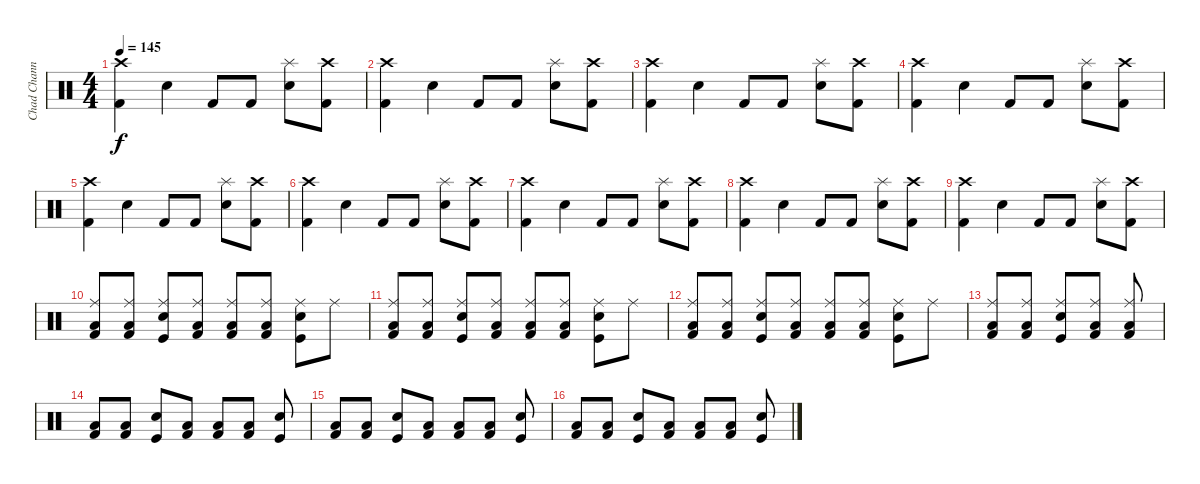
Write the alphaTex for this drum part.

\track ("Chad Channing" "Chad Chann") {instrument percussion}
\staff {score}
\articulation defaults
\ts (4 4)
\tempo 145
\clef neutral
\ks c
("Crash high (hit)" "Kick (hit) 2").4{dy f} "Snare (hit) 2".4 "Kick (hit) 2".8 "Kick (hit) 2".8 ("Splash (hit)" "Snare (hit) 2").8 ("Crash high (hit)" "Kick (hit) 2").8 |
("Crash high (hit)" "Kick (hit) 2").4 "Snare (hit) 2".4 "Kick (hit) 2".8 "Kick (hit) 2".8 ("Splash (hit)" "Snare (hit) 2").8 ("Crash high (hit)" "Kick (hit) 2").8 |
("Crash high (hit)" "Kick (hit) 2").4 "Snare (hit) 2".4 "Kick (hit) 2".8 "Kick (hit) 2".8 ("Splash (hit)" "Snare (hit) 2").8 ("Crash high (hit)" "Kick (hit) 2").8 |
("Crash high (hit)" "Kick (hit) 2").4 "Snare (hit) 2".4 "Kick (hit) 2".8 "Kick (hit) 2".8 ("Splash (hit)" "Snare (hit) 2").8 ("Crash high (hit)" "Kick (hit) 2").8 |
("Crash high (hit)" "Kick (hit) 2").4 "Snare (hit) 2".4 "Kick (hit) 2".8 "Kick (hit) 2".8 ("Splash (hit)" "Snare (hit) 2").8 ("Crash high (hit)" "Kick (hit) 2").8 |
("Crash high (hit)" "Kick (hit) 2").4 "Snare (hit) 2".4 "Kick (hit) 2".8 "Kick (hit) 2".8 ("Splash (hit)" "Snare (hit) 2").8 ("Crash high (hit)" "Kick (hit) 2").8 |
("Crash high (hit)" "Kick (hit) 2").4 "Snare (hit) 2".4 "Kick (hit) 2".8 "Kick (hit) 2".8 ("Splash (hit)" "Snare (hit) 2").8 ("Crash high (hit)" "Kick (hit) 2").8 |
("Crash high (hit)" "Kick (hit) 2").4 "Snare (hit) 2".4 "Kick (hit) 2".8 "Kick (hit) 2".8 ("Splash (hit)" "Snare (hit) 2").8 ("Crash high (hit)" "Kick (hit) 2").8 |
("Crash high (hit)" "Kick (hit) 2").4 "Snare (hit) 2".4 "Kick (hit) 2".8 "Kick (hit) 2".8 ("Splash (hit)" "Snare (hit) 2").8 ("Crash high (hit)" "Kick (hit) 2").8 |
("Ride (middle)" "Low Floor Tom (hit)" "Kick (hit) 2").8 ("Ride (middle)" "Low Floor Tom (hit)" "Kick (hit) 2").8 ("Snare (hit) 2" "Ride (middle)" "Kick (hit)").8 ("Ride (middle)" "Low Floor Tom (hit)" "Kick (hit) 2").8 ("Ride (middle)" "Low Floor Tom (hit)" "Kick (hit) 2").8 ("Ride (middle)" "Low Floor Tom (hit)" "Kick (hit) 2").8 ("Snare (hit) 2" "Ride (middle)" "Kick (hit)").8 "Ride (middle)".8 |
("Ride (middle)" "Low Floor Tom (hit)" "Kick (hit) 2").8 ("Ride (middle)" "Low Floor Tom (hit)" "Kick (hit) 2").8 ("Snare (hit) 2" "Ride (middle)" "Kick (hit)").8 ("Ride (middle)" "Low Floor Tom (hit)" "Kick (hit) 2").8 ("Ride (middle)" "Low Floor Tom (hit)" "Kick (hit) 2").8 ("Ride (middle)" "Low Floor Tom (hit)" "Kick (hit) 2").8 ("Snare (hit) 2" "Ride (middle)" "Kick (hit)").8 "Ride (middle)".8 |
("Ride (middle)" "Low Floor Tom (hit)" "Kick (hit) 2").8 ("Ride (middle)" "Low Floor Tom (hit)" "Kick (hit) 2").8 ("Snare (hit) 2" "Ride (middle)" "Kick (hit)").8 ("Ride (middle)" "Low Floor Tom (hit)" "Kick (hit) 2").8 ("Ride (middle)" "Low Floor Tom (hit)" "Kick (hit) 2").8 ("Ride (middle)" "Low Floor Tom (hit)" "Kick (hit) 2").8 ("Snare (hit) 2" "Ride (middle)" "Kick (hit)").8 "Ride (middle)".8 |
("Ride (middle)" "Low Floor Tom (hit)" "Kick (hit) 2").8 ("Ride (middle)" "Low Floor Tom (hit)" "Kick (hit) 2").8 ("Snare (hit) 2" "Ride (middle)" "Kick (hit)").8 ("Ride (middle)" "Low Floor Tom (hit)" "Kick (hit) 2").8 ("Ride (middle)" "Low Floor Tom (hit)" "Kick (hit) 2").8 |
("Low Floor Tom (hit)" "Kick (hit) 2").8 ("Low Floor Tom (hit)" "Kick (hit) 2").8 ("Snare (hit) 2" "Kick (hit)").8 ("Low Floor Tom (hit)" "Kick (hit) 2").8 ("Low Floor Tom (hit)" "Kick (hit) 2").8 ("Low Floor Tom (hit)" "Kick (hit) 2").8 ("Snare (hit) 2" "Kick (hit)").8 |
("Low Floor Tom (hit)" "Kick (hit) 2").8 ("Low Floor Tom (hit)" "Kick (hit) 2").8 ("Snare (hit) 2" "Kick (hit)").8 ("Low Floor Tom (hit)" "Kick (hit) 2").8 ("Low Floor Tom (hit)" "Kick (hit) 2").8 ("Low Floor Tom (hit)" "Kick (hit) 2").8 ("Snare (hit) 2" "Kick (hit)").8 |
("Low Floor Tom (hit)" "Kick (hit) 2").8 ("Low Floor Tom (hit)" "Kick (hit) 2").8 ("Snare (hit) 2" "Kick (hit)").8 ("Low Floor Tom (hit)" "Kick (hit) 2").8 ("Low Floor Tom (hit)" "Kick (hit) 2").8 ("Low Floor Tom (hit)" "Kick (hit) 2").8 ("Snare (hit) 2" "Kick (hit)").8
